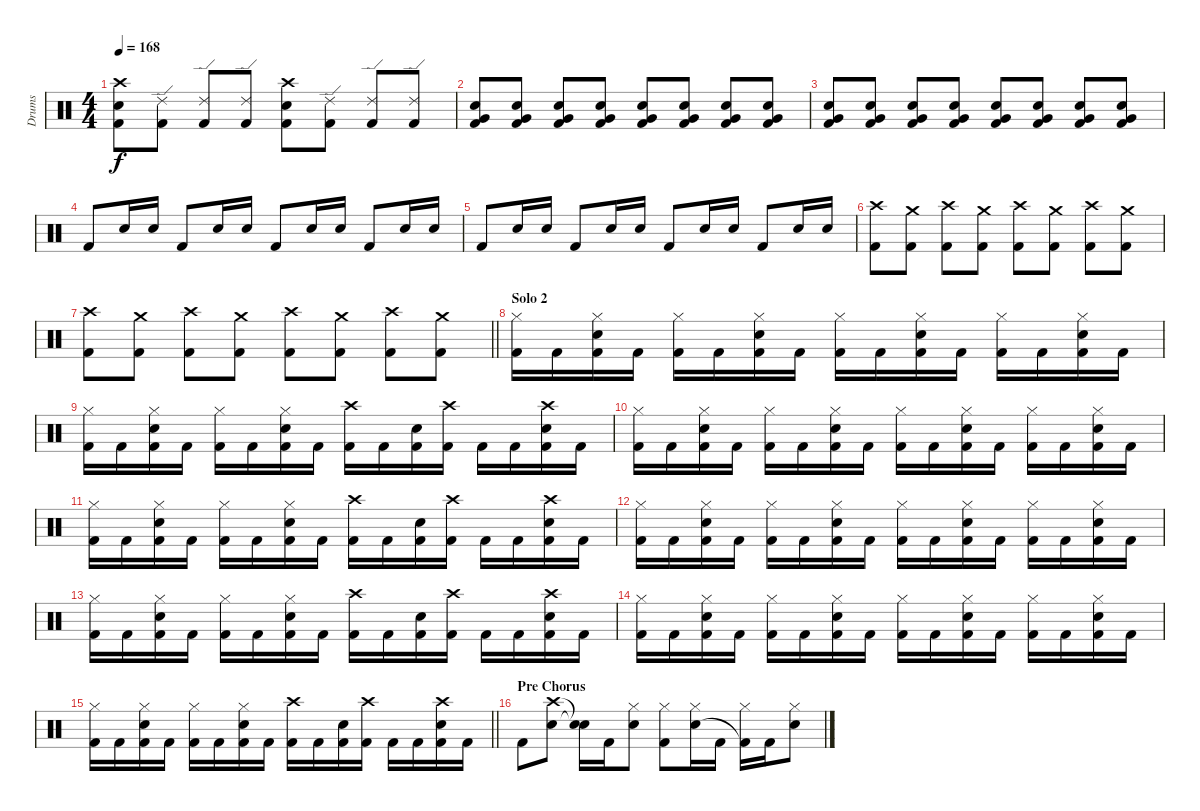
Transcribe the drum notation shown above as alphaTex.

\track ("Drums" "Drums") {instrument percussion}
\staff {score}
\articulation defaults
\ts (4 4)
\tempo 168
\clef neutral
\ks c
("Crash high (hit)" "Electric Snare (hit)" "Kick (hit) 2").8{dy f} ("Ride (edge) 2" "Kick (hit) 2").8 ("Ride (edge) 2" "Kick (hit) 2").8 ("Ride (edge) 2" "Kick (hit) 2").8 ("Crash high (hit)" "Electric Snare (hit)" "Kick (hit) 2").8 ("Ride (edge) 2" "Kick (hit) 2").8 ("Ride (edge) 2" "Kick (hit) 2").8 ("Ride (edge) 2" "Kick (hit) 2").8 |
("Very Low Tom (hit)" "Electric Snare (hit)" "Kick (hit) 2").8 ("Very Low Tom (hit)" "Electric Snare (hit)" "Kick (hit) 2").8 ("Very Low Tom (hit)" "Electric Snare (hit)" "Kick (hit) 2").8 ("Very Low Tom (hit)" "Electric Snare (hit)" "Kick (hit) 2").8 ("Very Low Tom (hit)" "Electric Snare (hit)" "Kick (hit) 2").8 ("Very Low Tom (hit)" "Electric Snare (hit)" "Kick (hit) 2").8 ("Very Low Tom (hit)" "Electric Snare (hit)" "Kick (hit) 2").8 ("Very Low Tom (hit)" "Electric Snare (hit)" "Kick (hit) 2").8 |
("Very Low Tom (hit)" "Electric Snare (hit)" "Kick (hit) 2").8 ("Very Low Tom (hit)" "Electric Snare (hit)" "Kick (hit) 2").8 ("Very Low Tom (hit)" "Electric Snare (hit)" "Kick (hit) 2").8 ("Very Low Tom (hit)" "Electric Snare (hit)" "Kick (hit) 2").8 ("Very Low Tom (hit)" "Electric Snare (hit)" "Kick (hit) 2").8 ("Very Low Tom (hit)" "Electric Snare (hit)" "Kick (hit) 2").8 ("Very Low Tom (hit)" "Electric Snare (hit)" "Kick (hit) 2").8 ("Very Low Tom (hit)" "Electric Snare (hit)" "Kick (hit) 2").8 |
"Kick (hit) 2".8 "Electric Snare (hit)".16 "Electric Snare (hit)".16 "Kick (hit) 2".8 "Electric Snare (hit)".16 "Electric Snare (hit)".16 "Kick (hit) 2".8 "Electric Snare (hit)".16 "Electric Snare (hit)".16 "Kick (hit) 2".8 "Electric Snare (hit)".16 "Electric Snare (hit)".16 |
"Kick (hit) 2".8 "Electric Snare (hit)".16 "Electric Snare (hit)".16 "Kick (hit) 2".8 "Electric Snare (hit)".16 "Electric Snare (hit)".16 "Kick (hit) 2".8 "Electric Snare (hit)".16 "Electric Snare (hit)".16 "Kick (hit) 2".8 "Electric Snare (hit)".16 "Electric Snare (hit)".16 |
("Crash high (hit)" "Kick (hit) 2").8 ("Crash medium (hit)" "Kick (hit) 2").8 ("Crash high (hit)" "Kick (hit) 2").8 ("Crash medium (hit)" "Kick (hit) 2").8 ("Crash high (hit)" "Kick (hit) 2").8 ("Crash medium (hit)" "Kick (hit) 2").8 ("Crash high (hit)" "Kick (hit) 2").8 ("Crash medium (hit)" "Kick (hit) 2").8 |
\barLineRight lightlight
("Crash high (hit)" "Kick (hit) 2").8 ("Crash medium (hit)" "Kick (hit) 2").8 ("Crash high (hit)" "Kick (hit) 2").8 ("Crash medium (hit)" "Kick (hit) 2").8 ("Crash high (hit)" "Kick (hit) 2").8 ("Crash medium (hit)" "Kick (hit) 2").8 ("Crash high (hit)" "Kick (hit) 2").8 ("Crash medium (hit)" "Kick (hit) 2").8 |
\section ("" "Solo 2")
("Hi-Hat (closed)" "Kick (hit) 2").16 "Kick (hit) 2".16 ("Hi-Hat (closed)" "Electric Snare (hit)" "Kick (hit) 2").16 "Kick (hit) 2".16 ("Hi-Hat (closed)" "Kick (hit) 2").16 "Kick (hit) 2".16 ("Hi-Hat (closed)" "Electric Snare (hit)" "Kick (hit) 2").16 "Kick (hit) 2".16 ("Hi-Hat (closed)" "Kick (hit) 2").16 "Kick (hit) 2".16 ("Hi-Hat (closed)" "Electric Snare (hit)" "Kick (hit) 2").16 "Kick (hit) 2".16 ("Hi-Hat (closed)" "Kick (hit) 2").16 "Kick (hit) 2".16 ("Hi-Hat (closed)" "Electric Snare (hit)" "Kick (hit) 2").16 "Kick (hit) 2".16 |
("Hi-Hat (closed)" "Kick (hit) 2").16 "Kick (hit) 2".16 ("Hi-Hat (closed)" "Electric Snare (hit)" "Kick (hit) 2").16 "Kick (hit) 2".16 ("Hi-Hat (closed)" "Kick (hit) 2").16 "Kick (hit) 2".16 ("Hi-Hat (closed)" "Electric Snare (hit)" "Kick (hit) 2").16 "Kick (hit) 2".16 ("Crash high (hit)" "Kick (hit) 2").16 "Kick (hit) 2".16 ("Electric Snare (hit)" "Kick (hit) 2").16 ("Crash high (hit)" "Kick (hit) 2").16 "Kick (hit) 2".16 "Kick (hit) 2".16 ("Crash high (hit)" "Electric Snare (hit)" "Kick (hit) 2").16 "Kick (hit) 2".16 |
("Hi-Hat (closed)" "Kick (hit) 2").16 "Kick (hit) 2".16 ("Hi-Hat (closed)" "Electric Snare (hit)" "Kick (hit) 2").16 "Kick (hit) 2".16 ("Hi-Hat (closed)" "Kick (hit) 2").16 "Kick (hit) 2".16 ("Hi-Hat (closed)" "Electric Snare (hit)" "Kick (hit) 2").16 "Kick (hit) 2".16 ("Hi-Hat (closed)" "Kick (hit) 2").16 "Kick (hit) 2".16 ("Hi-Hat (closed)" "Electric Snare (hit)" "Kick (hit) 2").16 "Kick (hit) 2".16 ("Hi-Hat (closed)" "Kick (hit) 2").16 "Kick (hit) 2".16 ("Hi-Hat (closed)" "Electric Snare (hit)" "Kick (hit) 2").16 "Kick (hit) 2".16 |
("Hi-Hat (closed)" "Kick (hit) 2").16 "Kick (hit) 2".16 ("Hi-Hat (closed)" "Electric Snare (hit)" "Kick (hit) 2").16 "Kick (hit) 2".16 ("Hi-Hat (closed)" "Kick (hit) 2").16 "Kick (hit) 2".16 ("Hi-Hat (closed)" "Electric Snare (hit)" "Kick (hit) 2").16 "Kick (hit) 2".16 ("Crash high (hit)" "Kick (hit) 2").16 "Kick (hit) 2".16 ("Electric Snare (hit)" "Kick (hit) 2").16 ("Crash high (hit)" "Kick (hit) 2").16 "Kick (hit) 2".16 "Kick (hit) 2".16 ("Crash high (hit)" "Electric Snare (hit)" "Kick (hit) 2").16 "Kick (hit) 2".16 |
("Hi-Hat (closed)" "Kick (hit) 2").16 "Kick (hit) 2".16 ("Hi-Hat (closed)" "Electric Snare (hit)" "Kick (hit) 2").16 "Kick (hit) 2".16 ("Hi-Hat (closed)" "Kick (hit) 2").16 "Kick (hit) 2".16 ("Hi-Hat (closed)" "Electric Snare (hit)" "Kick (hit) 2").16 "Kick (hit) 2".16 ("Hi-Hat (closed)" "Kick (hit) 2").16 "Kick (hit) 2".16 ("Hi-Hat (closed)" "Electric Snare (hit)" "Kick (hit) 2").16 "Kick (hit) 2".16 ("Hi-Hat (closed)" "Kick (hit) 2").16 "Kick (hit) 2".16 ("Hi-Hat (closed)" "Electric Snare (hit)" "Kick (hit) 2").16 "Kick (hit) 2".16 |
("Hi-Hat (closed)" "Kick (hit) 2").16 "Kick (hit) 2".16 ("Hi-Hat (closed)" "Electric Snare (hit)" "Kick (hit) 2").16 "Kick (hit) 2".16 ("Hi-Hat (closed)" "Kick (hit) 2").16 "Kick (hit) 2".16 ("Hi-Hat (closed)" "Electric Snare (hit)" "Kick (hit) 2").16 "Kick (hit) 2".16 ("Crash high (hit)" "Kick (hit) 2").16 "Kick (hit) 2".16 ("Electric Snare (hit)" "Kick (hit) 2").16 ("Crash high (hit)" "Kick (hit) 2").16 "Kick (hit) 2".16 "Kick (hit) 2".16 ("Crash high (hit)" "Electric Snare (hit)" "Kick (hit) 2").16 "Kick (hit) 2".16 |
("Hi-Hat (closed)" "Kick (hit) 2").16 "Kick (hit) 2".16 ("Hi-Hat (closed)" "Electric Snare (hit)" "Kick (hit) 2").16 "Kick (hit) 2".16 ("Hi-Hat (closed)" "Kick (hit) 2").16 "Kick (hit) 2".16 ("Hi-Hat (closed)" "Electric Snare (hit)" "Kick (hit) 2").16 "Kick (hit) 2".16 ("Hi-Hat (closed)" "Kick (hit) 2").16 "Kick (hit) 2".16 ("Hi-Hat (closed)" "Electric Snare (hit)" "Kick (hit) 2").16 "Kick (hit) 2".16 ("Hi-Hat (closed)" "Kick (hit) 2").16 "Kick (hit) 2".16 ("Hi-Hat (closed)" "Electric Snare (hit)" "Kick (hit) 2").16 "Kick (hit) 2".16 |
\barLineRight lightlight
("Hi-Hat (closed)" "Kick (hit) 2").16 "Kick (hit) 2".16 ("Hi-Hat (closed)" "Electric Snare (hit)" "Kick (hit) 2").16 "Kick (hit) 2".16 ("Hi-Hat (closed)" "Kick (hit) 2").16 "Kick (hit) 2".16 ("Hi-Hat (closed)" "Electric Snare (hit)" "Kick (hit) 2").16 "Kick (hit) 2".16 ("Crash high (hit)" "Kick (hit) 2").16 "Kick (hit) 2".16 ("Electric Snare (hit)" "Kick (hit) 2").16 ("Crash high (hit)" "Kick (hit) 2").16 "Kick (hit) 2".16 "Kick (hit) 2".16 ("Crash high (hit)" "Electric Snare (hit)" "Kick (hit) 2").16 "Kick (hit) 2".16 |
\section ("" "Pre Chorus")
"Kick (hit) 2".8 ("Crash high (hit)" "Electric Snare (hit)").8 ("Snare (hit)"{t} "Snare (hit)"{t}).16 "Kick (hit) 2".16 ("Hi-Hat (closed)" "Electric Snare (hit)").8 ("Hi-Hat (closed)" "Kick (hit) 2").8 ("Hi-Hat (closed)" "Electric Snare (hit)").16 "Kick (hit) 2".16 ("Hi-Hat (closed)" "Kick (hit) 2"{t}).16 "Kick (hit) 2".16 ("Hi-Hat (closed)" "Electric Snare (hit)").8
